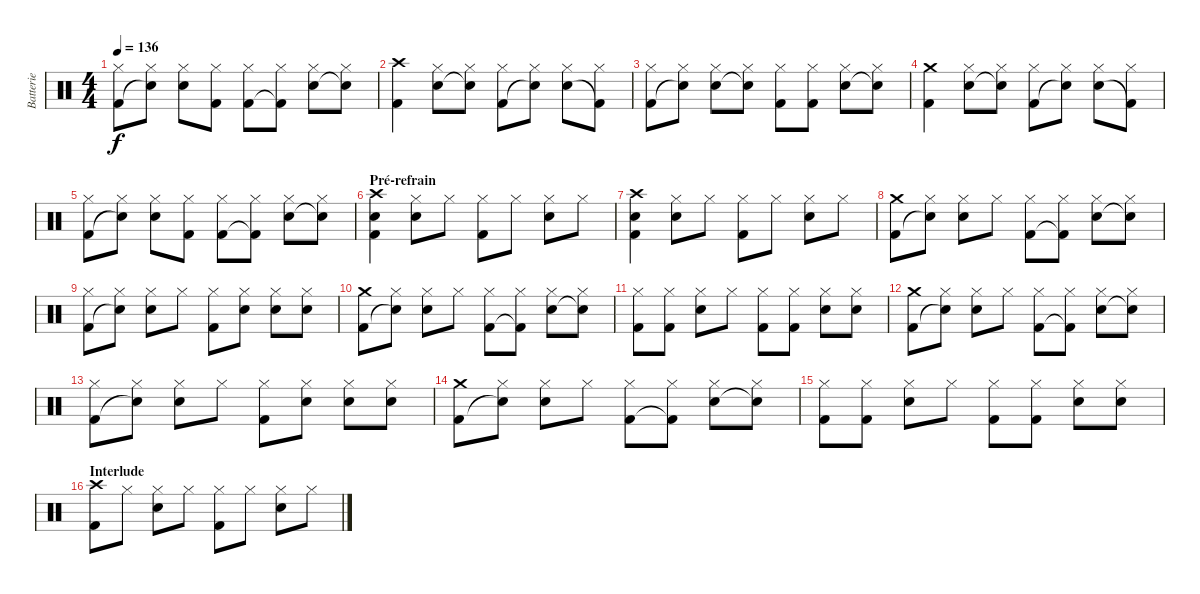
\track ("Batterie" "Batterie") {instrument percussion}
\staff {score}
\articulation defaults
\ts (4 4)
\tempo 136
\clef neutral
\ks c
("Hi-Hat (closed)" "Kick (hit) 2").8{dy f} ("Hi-Hat (closed)" "Snare (hit)"{t}).8 ("Hi-Hat (closed)" "Snare (hit) 2").8 ("Hi-Hat (closed)" "Kick (hit) 2").8 ("Hi-Hat (closed)" "Kick (hit) 2").8 ("Hi-Hat (closed)" "Kick (hit) 2"{t}).8 ("Hi-Hat (closed)" "Snare (hit) 2").8 ("Hi-Hat (closed)" "Snare (hit)"{t}).8 |
("Crash high (hit)" "Kick (hit) 2").4 ("Hi-Hat (closed)" "Snare (hit) 2").8 ("Hi-Hat (closed)" "Snare (hit)"{t}).8 ("Hi-Hat (closed)" "Kick (hit) 2").8 ("Hi-Hat (closed)" "Snare (hit)"{t}).8 ("Hi-Hat (closed)" "Snare (hit) 2").8 ("Hi-Hat (closed)" "Kick (hit) 2"{t}).8 |
("Hi-Hat (closed)" "Kick (hit) 2").8 ("Hi-Hat (closed)" "Snare (hit)"{t}).8 ("Hi-Hat (closed)" "Snare (hit) 2").8 ("Hi-Hat (closed)" "Snare (hit)"{t}).8 ("Hi-Hat (closed)" "Kick (hit) 2").8 ("Hi-Hat (closed)" "Kick (hit) 2").8 ("Hi-Hat (closed)" "Snare (hit) 2").8 ("Hi-Hat (closed)" "Snare (hit)"{t}).8 |
("Crash medium (hit)" "Kick (hit) 2").4 ("Hi-Hat (closed)" "Snare (hit) 2").8 ("Hi-Hat (closed)" "Snare (hit)"{t}).8 ("Hi-Hat (closed)" "Kick (hit) 2").8 ("Hi-Hat (closed)" "Snare (hit)"{t}).8 ("Hi-Hat (closed)" "Snare (hit) 2").8 ("Hi-Hat (closed)" "Kick (hit) 2"{t}).8 |
("Hi-Hat (closed)" "Kick (hit) 2").8 ("Hi-Hat (closed)" "Snare (hit)"{t}).8 ("Hi-Hat (closed)" "Snare (hit) 2").8 ("Hi-Hat (closed)" "Kick (hit) 2").8 ("Hi-Hat (closed)" "Kick (hit) 2").8 ("Hi-Hat (closed)" "Kick (hit) 2"{t}).8 ("Hi-Hat (closed)" "Snare (hit) 2").8 ("Hi-Hat (closed)" "Snare (hit)"{t}).8 |
\section ("" "Pré-refrain")
("Crash high (hit)" "Snare (hit) 2" "Kick (hit) 2").4 ("Hi-Hat (closed)" "Snare (hit) 2").8 "Hi-Hat (closed)".8 ("Hi-Hat (closed)" "Kick (hit) 2").8 "Hi-Hat (closed)".8 ("Hi-Hat (closed)" "Snare (hit) 2").8 "Hi-Hat (closed)".8 |
("Crash high (hit)" "Snare (hit) 2" "Kick (hit) 2").4 ("Hi-Hat (closed)" "Snare (hit) 2").8 "Hi-Hat (closed)".8 ("Hi-Hat (closed)" "Kick (hit) 2").8 "Hi-Hat (closed)".8 ("Hi-Hat (closed)" "Snare (hit) 2").8 "Hi-Hat (closed)".8 |
("Crash medium (hit)" "Kick (hit) 2").8 ("Hi-Hat (closed)" "Snare (hit)"{t}).8 ("Hi-Hat (closed)" "Snare (hit) 2").8 "Hi-Hat (closed)".8 ("Hi-Hat (closed)" "Kick (hit) 2").8 ("Hi-Hat (closed)" "Kick (hit) 2"{t}).8 ("Hi-Hat (closed)" "Snare (hit) 2").8 ("Hi-Hat (closed)" "Snare (hit)"{t}).8 |
("Hi-Hat (closed)" "Kick (hit) 2").8 ("Hi-Hat (closed)" "Snare (hit)"{t}).8 ("Hi-Hat (closed)" "Snare (hit) 2").8 "Hi-Hat (closed)".8 ("Hi-Hat (closed)" "Kick (hit) 2").8 ("Hi-Hat (closed)" "Snare (hit) 2").8 ("Hi-Hat (closed)" "Snare (hit) 2").8 ("Hi-Hat (closed)" "Snare (hit) 2").8 |
("Crash medium (hit)" "Kick (hit) 2").8 ("Hi-Hat (closed)" "Snare (hit)"{t}).8 ("Hi-Hat (closed)" "Snare (hit) 2").8 "Hi-Hat (closed)".8 ("Hi-Hat (closed)" "Kick (hit) 2").8 ("Hi-Hat (closed)" "Kick (hit) 2"{t}).8 ("Hi-Hat (closed)" "Snare (hit) 2").8 ("Hi-Hat (closed)" "Snare (hit)"{t}).8 |
("Hi-Hat (closed)" "Kick (hit) 2").8 ("Hi-Hat (closed)" "Kick (hit) 2").8 ("Hi-Hat (closed)" "Snare (hit) 2").8 "Hi-Hat (closed)".8 ("Hi-Hat (closed)" "Kick (hit) 2").8 ("Hi-Hat (closed)" "Kick (hit) 2").8 ("Hi-Hat (closed)" "Snare (hit) 2").8 ("Hi-Hat (closed)" "Snare (hit) 2").8 |
("Crash medium (hit)" "Kick (hit) 2").8 ("Hi-Hat (closed)" "Snare (hit)"{t}).8 ("Hi-Hat (closed)" "Snare (hit) 2").8 "Hi-Hat (closed)".8 ("Hi-Hat (closed)" "Kick (hit) 2").8 ("Hi-Hat (closed)" "Kick (hit) 2"{t}).8 ("Hi-Hat (closed)" "Snare (hit) 2").8 ("Hi-Hat (closed)" "Snare (hit)"{t}).8 |
("Hi-Hat (closed)" "Kick (hit) 2").8 ("Hi-Hat (closed)" "Snare (hit)"{t}).8 ("Hi-Hat (closed)" "Snare (hit) 2").8 "Hi-Hat (closed)".8 ("Hi-Hat (closed)" "Kick (hit) 2").8 ("Hi-Hat (closed)" "Snare (hit) 2").8 ("Hi-Hat (closed)" "Snare (hit) 2").8 ("Hi-Hat (closed)" "Snare (hit) 2").8 |
("Crash medium (hit)" "Kick (hit) 2").8 ("Hi-Hat (closed)" "Snare (hit)"{t}).8 ("Hi-Hat (closed)" "Snare (hit) 2").8 "Hi-Hat (closed)".8 ("Hi-Hat (closed)" "Kick (hit) 2").8 ("Hi-Hat (closed)" "Kick (hit) 2"{t}).8 ("Hi-Hat (closed)" "Snare (hit) 2").8 ("Hi-Hat (closed)" "Snare (hit)"{t}).8 |
("Hi-Hat (closed)" "Kick (hit) 2").8 ("Hi-Hat (closed)" "Kick (hit) 2").8 ("Hi-Hat (closed)" "Snare (hit) 2").8 "Hi-Hat (closed)".8 ("Hi-Hat (closed)" "Kick (hit) 2").8 ("Hi-Hat (closed)" "Kick (hit) 2").8 ("Hi-Hat (closed)" "Snare (hit) 2").8 ("Hi-Hat (closed)" "Snare (hit) 2").8 |
\section ("" "Interlude")
("Crash high (hit)" "Kick (hit) 2").8 "Hi-Hat (closed)".8 ("Hi-Hat (closed)" "Snare (hit) 2").8 "Hi-Hat (closed)".8 ("Hi-Hat (closed)" "Kick (hit) 2").8 "Hi-Hat (closed)".8 ("Hi-Hat (closed)" "Snare (hit) 2").8 "Hi-Hat (closed)".8
